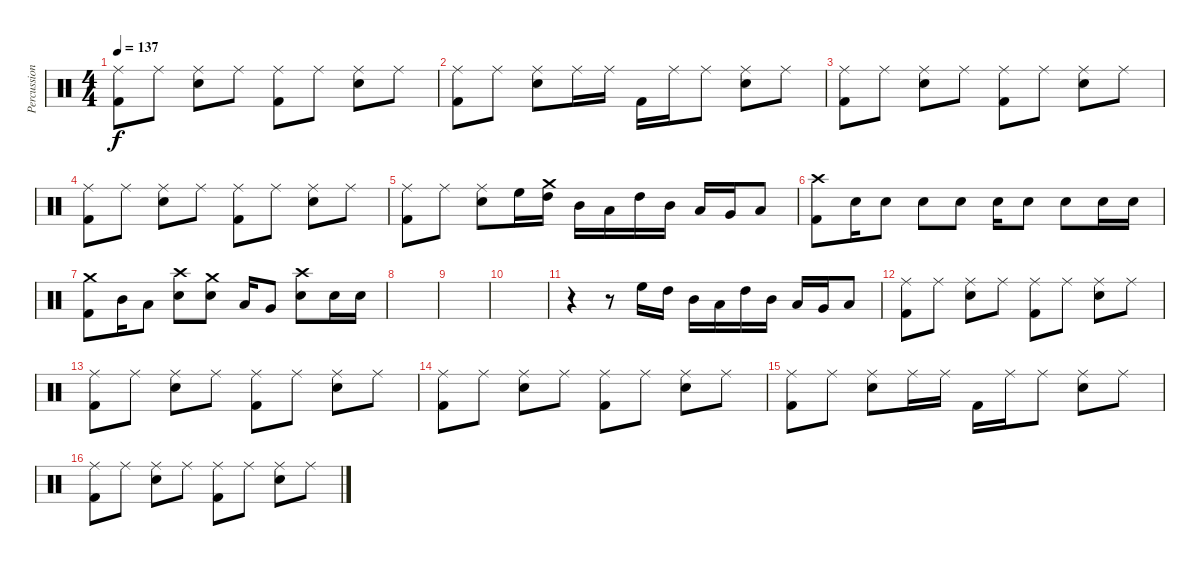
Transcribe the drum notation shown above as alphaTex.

\track ("Percussion" "Percussion") {instrument percussion}
\staff {score}
\articulation defaults
\ts (4 4)
\tempo 137
\clef neutral
\ks c
("Ride (middle)" "Kick (hit) 2").8{dy f} "Ride (middle)".8 ("Ride (middle)" "Snare (hit) 2").8 "Ride (middle)".8 ("Ride (middle)" "Kick (hit) 2").8 "Ride (middle)".8 ("Ride (middle)" "Snare (hit) 2").8 "Ride (middle)".8 |
("Ride (middle)" "Kick (hit) 2").8 "Ride (middle)".8 ("Ride (middle)" "Snare (hit) 2").8 "Ride (middle)".16 "Ride (middle)".16 "Kick (hit) 2".16 "Ride (middle)".16 "Ride (middle)".8 ("Ride (middle)" "Snare (hit) 2").8 "Ride (middle)".8 |
("Ride (middle)" "Kick (hit) 2").8 "Ride (middle)".8 ("Ride (middle)" "Snare (hit) 2").8 "Ride (middle)".8 ("Ride (middle)" "Kick (hit) 2").8 "Ride (middle)".8 ("Ride (middle)" "Snare (hit) 2").8 "Ride (middle)".8 |
("Ride (middle)" "Kick (hit) 2").8 "Ride (middle)".8 ("Ride (middle)" "Snare (hit) 2").8 "Ride (middle)".8 ("Ride (middle)" "Kick (hit) 2").8 "Ride (middle)".8 ("Ride (middle)" "Snare (hit) 2").8 "Ride (middle)".8 |
("Ride (middle)" "Kick (hit) 2").8 "Ride (middle)".8 ("Ride (middle)" "Snare (hit) 2").8 "High Floor Tom (hit)".16 ("Crash medium (hit)" "High Tom (hit)").16 "Mid Tom (hit)".16 "Low Tom (hit)".16 "High Tom (hit)".16 "Mid Tom (hit)".16 "Low Tom (hit)".16 "Very Low Tom (hit)".16 "Low Floor Tom (hit)".8 |
("Crash high (hit)" "Kick (hit) 2").8 "Snare (hit) 2".16 "Snare (hit) 2".8 "Snare (hit) 2".8 "Snare (hit) 2".8 "Snare (hit) 2".16 "Snare (hit) 2".8 "Snare (hit) 2".8 "Snare (hit) 2".16 "Snare (hit) 2".16 |
("Crash medium (hit)" "Kick (hit) 2").8 "Mid Tom (hit)".16 "Low Tom (hit)".8 ("Crash high (hit)" "Snare (hit) 2").8 ("Crash medium (hit)" "Snare (hit) 2").8 "Low Tom (hit)".16 "Very Low Tom (hit)".8 ("Crash high (hit)" "Snare (hit) 2").8 "Snare (hit) 2".16 "Snare (hit) 2".16 |
|
|
|
r.4 r.8 "High Floor Tom (hit)".16 "High Tom (hit)".16 "Mid Tom (hit)".16 "Low Tom (hit)".16 "High Tom (hit)".16 "Mid Tom (hit)".16 "Low Tom (hit)".16 "Very Low Tom (hit)".16 "Low Floor Tom (hit)".8 |
("Ride (middle)" "Kick (hit) 2").8 "Ride (middle)".8 ("Ride (middle)" "Snare (hit) 2").8 "Ride (middle)".8 ("Ride (middle)" "Kick (hit) 2").8 "Ride (middle)".8 ("Ride (middle)" "Snare (hit) 2").8 "Ride (middle)".8 |
("Ride (middle)" "Kick (hit) 2").8 "Ride (middle)".8 ("Ride (middle)" "Snare (hit) 2").8 "Ride (middle)".8 ("Ride (middle)" "Kick (hit) 2").8 "Ride (middle)".8 ("Ride (middle)" "Snare (hit) 2").8 "Ride (middle)".8 |
("Ride (middle)" "Kick (hit) 2").8 "Ride (middle)".8 ("Ride (middle)" "Snare (hit) 2").8 "Ride (middle)".8 ("Ride (middle)" "Kick (hit) 2").8 "Ride (middle)".8 ("Ride (middle)" "Snare (hit) 2").8 "Ride (middle)".8 |
("Ride (middle)" "Kick (hit) 2").8 "Ride (middle)".8 ("Ride (middle)" "Snare (hit) 2").8 "Ride (middle)".16 "Ride (middle)".16 "Kick (hit) 2".16 "Ride (middle)".16 "Ride (middle)".8 ("Ride (middle)" "Snare (hit) 2").8 "Ride (middle)".8 |
("Ride (middle)" "Kick (hit) 2").8 "Ride (middle)".8 ("Ride (middle)" "Snare (hit) 2").8 "Ride (middle)".8 ("Ride (middle)" "Kick (hit) 2").8 "Ride (middle)".8 ("Ride (middle)" "Snare (hit) 2").8 "Ride (middle)".8
